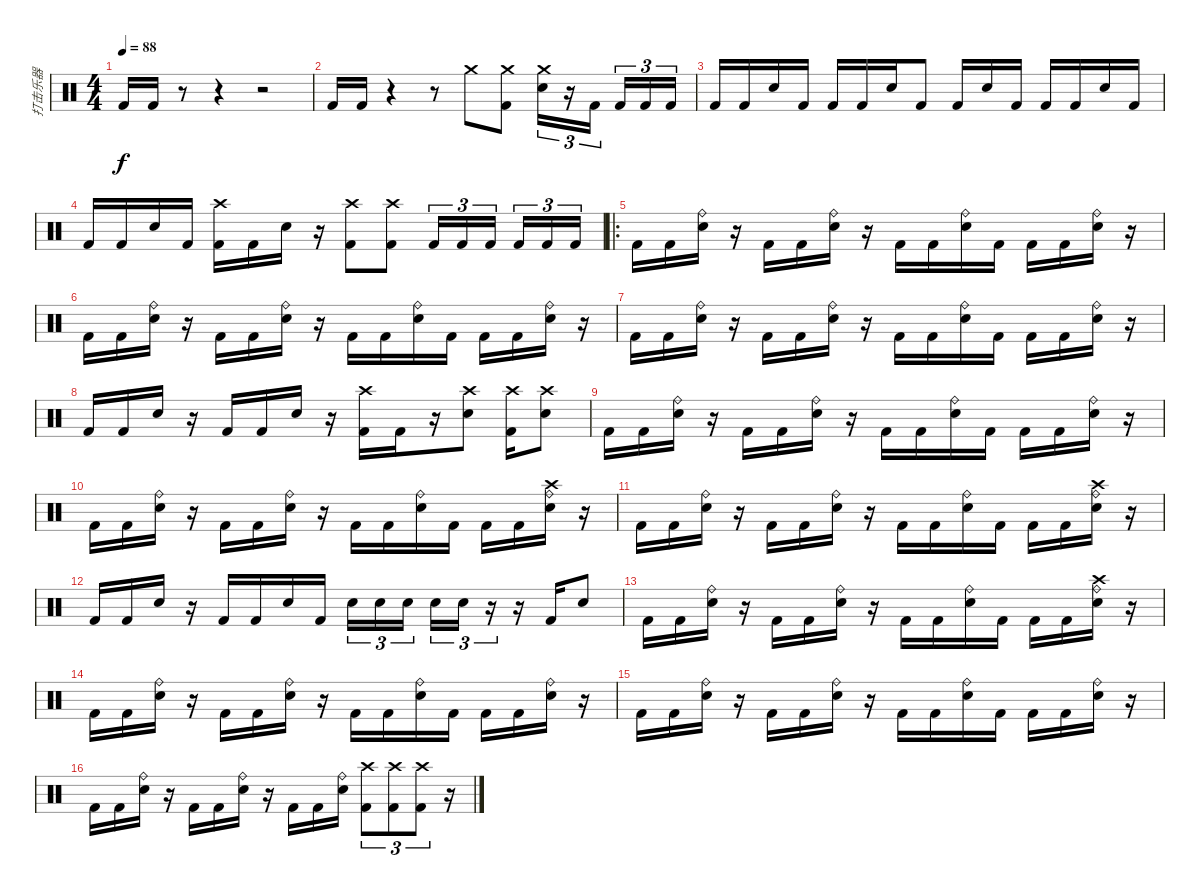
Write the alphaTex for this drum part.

\track ("打击乐器" "打击乐器") {instrument percussion}
\staff {score}
\articulation defaults
\ts (4 4)
\tempo 88
\clef neutral
\ks c "Kick (hit) 2".16{dy f} "Kick (hit) 2".16
r.8 r.4 r.2 |
"Kick (hit) 2".16 "Kick (hit) 2".16 r.4 r.8 "Crash medium (hit)".8 ("Crash medium (hit)" "Kick (hit) 2").8 ("Crash medium (hit)" "Snare (hit) 2").16{tu (3 2)} r.16{tu (3 2)} "Kick (hit) 2".16{tu (3 2)} "Kick (hit) 2".16{tu (3 2)} "Kick (hit) 2".16{tu (3 2)} "Kick (hit) 2".16{tu (3 2)} |
"Kick (hit) 2".16 "Kick (hit) 2".16 "Electric Snare (hit)".16 "Kick (hit) 2".16 "Kick (hit) 2".16 "Kick (hit) 2".16 "Electric Snare (hit)".16 "Kick (hit) 2".8 "Kick (hit) 2".16 "Electric Snare (hit)".16 "Kick (hit) 2".16 "Kick (hit) 2".16 "Kick (hit) 2".16 "Electric Snare (hit)".16 "Kick (hit) 2".16 |
"Kick (hit) 2".16 "Kick (hit) 2".16 "Electric Snare (hit)".16 "Kick (hit) 2".16 ("Kick (hit) 2" "Crash high (hit)").16 "Kick (hit) 2".16 "Electric Snare (hit)".16 r.16 ("Kick (hit) 2" "Crash high (hit)").8 ("Kick (hit) 2" "Crash high (hit)").8 "Kick (hit) 2".16{tu (3 2)} "Kick (hit) 2".16{tu (3 2)} "Kick (hit) 2".16{tu (3 2)} "Kick (hit) 2".16{tu (3 2)} "Kick (hit) 2".16{tu (3 2)} "Kick (hit) 2".16{tu (3 2)} |
\ro "Kick (hit) 2".16 "Kick (hit) 2".16
("Ride (bell)" "Electric Snare (hit)").16 r.16 "Kick (hit) 2".16 "Kick (hit) 2".16 ("Ride (bell)" "Electric Snare (hit)").16 r.16 "Kick (hit) 2".16 "Kick (hit) 2".16 ("Ride (bell)" "Electric Snare (hit)").16 "Kick (hit) 2".16 "Kick (hit) 2".16 "Kick (hit) 2".16 ("Ride (bell)" "Electric Snare (hit)").16 r.16 |
"Kick (hit) 2".16 "Kick (hit) 2".16 ("Ride (bell)" "Electric Snare (hit)").16 r.16 "Kick (hit) 2".16 "Kick (hit) 2".16 ("Ride (bell)" "Electric Snare (hit)").16 r.16 "Kick (hit) 2".16 "Kick (hit) 2".16 ("Ride (bell)" "Electric Snare (hit)").16 "Kick (hit) 2".16 "Kick (hit) 2".16 "Kick (hit) 2".16 ("Ride (bell)" "Electric Snare (hit)").16 r.16 |
"Kick (hit) 2".16 "Kick (hit) 2".16 ("Ride (bell)" "Electric Snare (hit)").16 r.16 "Kick (hit) 2".16 "Kick (hit) 2".16 ("Ride (bell)" "Electric Snare (hit)").16 r.16 "Kick (hit) 2".16 "Kick (hit) 2".16 ("Ride (bell)" "Electric Snare (hit)").16 "Kick (hit) 2".16 "Kick (hit) 2".16 "Kick (hit) 2".16 ("Ride (bell)" "Electric Snare (hit)").16 r.16 |
"Kick (hit) 2".16 "Kick (hit) 2".16 "Electric Snare (hit)".16 r.16 "Kick (hit) 2".16 "Kick (hit) 2".16 "Electric Snare (hit)".16 r.16 ("Crash high (hit)" "Kick (hit) 2").16 "Kick (hit) 2".16 r.16 ("Crash high (hit)" "Electric Snare (hit)").8 ("Crash high (hit)" "Kick (hit) 2").16 ("Crash high (hit)" "Electric Snare (hit)").8 |
"Kick (hit) 2".16 "Kick (hit) 2".16 ("Ride (bell)" "Electric Snare (hit)").16 r.16 "Kick (hit) 2".16 "Kick (hit) 2".16 ("Ride (bell)" "Electric Snare (hit)").16 r.16 "Kick (hit) 2".16 "Kick (hit) 2".16 ("Ride (bell)" "Electric Snare (hit)").16 "Kick (hit) 2".16 "Kick (hit) 2".16 "Kick (hit) 2".16 ("Ride (bell)" "Electric Snare (hit)").16 r.16 |
"Kick (hit) 2".16 "Kick (hit) 2".16 ("Ride (bell)" "Electric Snare (hit)").16 r.16 "Kick (hit) 2".16 "Kick (hit) 2".16 ("Ride (bell)" "Electric Snare (hit)").16 r.16 "Kick (hit) 2".16 "Kick (hit) 2".16 ("Ride (bell)" "Electric Snare (hit)").16 "Kick (hit) 2".16 "Kick (hit) 2".16 "Kick (hit) 2".16 ("Ride (bell)" "Electric Snare (hit)" "Crash high (hit)").16 r.16 |
"Kick (hit) 2".16 "Kick (hit) 2".16 ("Ride (bell)" "Electric Snare (hit)").16 r.16 "Kick (hit) 2".16 "Kick (hit) 2".16 ("Ride (bell)" "Electric Snare (hit)").16 r.16 "Kick (hit) 2".16 "Kick (hit) 2".16 ("Ride (bell)" "Electric Snare (hit)").16 "Kick (hit) 2".16 "Kick (hit) 2".16 "Kick (hit) 2".16 ("Ride (bell)" "Electric Snare (hit)" "Crash high (hit)").16 r.16 |
"Kick (hit) 2".16 "Kick (hit) 2".16 "Electric Snare (hit)".16 r.16 "Kick (hit) 2".16 "Kick (hit) 2".16 "Electric Snare (hit)".16 "Kick (hit) 2".16 "Electric Snare (hit)".16{tu (3 2)} "Electric Snare (hit)".16{tu (3 2)} "Electric Snare (hit)".16{tu (3 2)} "Electric Snare (hit)".16{tu (3 2)} "Electric Snare (hit)".16{tu (3 2)} r.16{tu (3 2)} r.16 "Kick (hit) 2".16 "Electric Snare (hit)".8 |
"Kick (hit) 2".16 "Kick (hit) 2".16 ("Ride (bell)" "Electric Snare (hit)").16 r.16 "Kick (hit) 2".16 "Kick (hit) 2".16 ("Ride (bell)" "Electric Snare (hit)").16 r.16 "Kick (hit) 2".16 "Kick (hit) 2".16 ("Ride (bell)" "Electric Snare (hit)").16 "Kick (hit) 2".16 "Kick (hit) 2".16 "Kick (hit) 2".16 ("Ride (bell)" "Electric Snare (hit)" "Crash high (hit)").16 r.16 |
"Kick (hit) 2".16 "Kick (hit) 2".16 ("Ride (bell)" "Electric Snare (hit)").16 r.16 "Kick (hit) 2".16 "Kick (hit) 2".16 ("Ride (bell)" "Electric Snare (hit)").16 r.16 "Kick (hit) 2".16 "Kick (hit) 2".16 ("Ride (bell)" "Electric Snare (hit)").16 "Kick (hit) 2".16 "Kick (hit) 2".16 "Kick (hit) 2".16 ("Ride (bell)" "Electric Snare (hit)").16 r.16 |
"Kick (hit) 2".16 "Kick (hit) 2".16 ("Ride (bell)" "Electric Snare (hit)").16 r.16 "Kick (hit) 2".16 "Kick (hit) 2".16 ("Ride (bell)" "Electric Snare (hit)").16 r.16 "Kick (hit) 2".16 "Kick (hit) 2".16 ("Ride (bell)" "Electric Snare (hit)").16 "Kick (hit) 2".16 "Kick (hit) 2".16 "Kick (hit) 2".16 ("Ride (bell)" "Electric Snare (hit)").16 r.16 |
"Kick (hit) 2".16 "Kick (hit) 2".16 ("Ride (bell)" "Electric Snare (hit)").16 r.16 "Kick (hit) 2".16 "Kick (hit) 2".16 ("Ride (bell)" "Electric Snare (hit)").16 r.16 "Kick (hit) 2".16 "Kick (hit) 2".16 ("Ride (bell)" "Electric Snare (hit)").16 ("Crash high (hit)" "Kick (hit) 2").8{tu (3 2)} ("Crash high (hit)" "Kick (hit) 2").8{tu (3 2)} ("Crash high (hit)" "Kick (hit) 2").8{tu (3 2)} r.16
